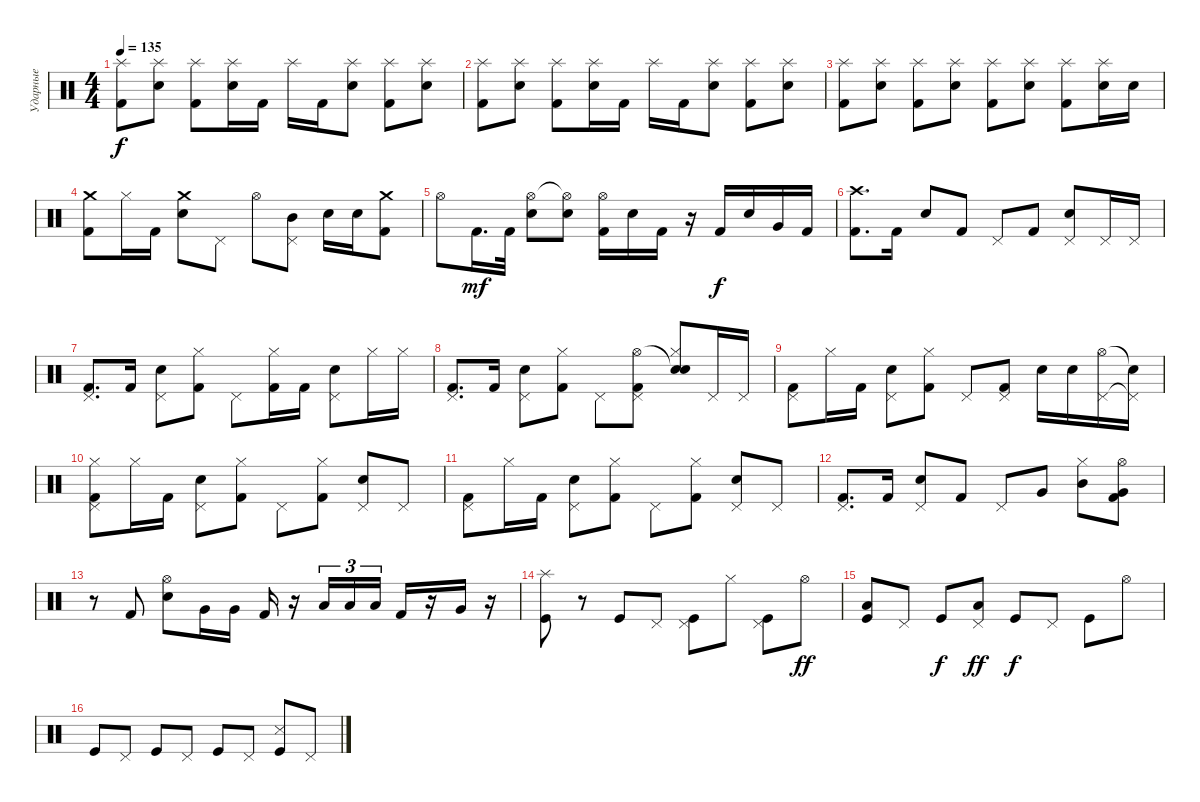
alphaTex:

\track ("Ударные" "Ударные") {instrument percussion}
\staff {score}
\articulation defaults
\ts (4 4)
\tempo 135
\clef neutral
\ks c
("Splash (hit)" "Kick (hit) 2").8{dy f} ("Splash (hit)" "Electric Snare (hit)").8 ("Splash (hit)" "Kick (hit) 2").8 ("Splash (hit)" "Electric Snare (hit)").16 "Kick (hit) 2".16 "Splash (hit)".16 "Kick (hit) 2".16 ("Splash (hit)" "Electric Snare (hit)").8 ("Splash (hit)" "Kick (hit) 2").8 ("Splash (hit)" "Electric Snare (hit)").8 |
("Splash (hit)" "Kick (hit) 2").8 ("Splash (hit)" "Electric Snare (hit)").8 ("Splash (hit)" "Kick (hit) 2").8 ("Splash (hit)" "Electric Snare (hit)").16 "Kick (hit) 2".16 "Splash (hit)".16 "Kick (hit) 2".16 ("Splash (hit)" "Electric Snare (hit)").8 ("Splash (hit)" "Kick (hit) 2").8 ("Splash (hit)" "Electric Snare (hit)").8 |
("Splash (hit)" "Kick (hit) 2").8 ("Splash (hit)" "Electric Snare (hit)").8 ("Splash (hit)" "Kick (hit) 2").8 ("Splash (hit)" "Electric Snare (hit)").8 ("Splash (hit)" "Kick (hit) 2").8 ("Splash (hit)" "Electric Snare (hit)").8 ("Splash (hit)" "Kick (hit) 2").8 ("Splash (hit)" "Electric Snare (hit)").16 "Electric Snare (hit)".16 |
("Crash medium (hit)" "Kick (hit) 2").8 "Hi-Hat (closed)".16 "Kick (hit) 2".16 ("Crash medium (hit)" "Electric Snare (hit)").8 "Pedal Hi-Hat (hit)".8 "Hi-Hat (open)".8 ("Pedal Hi-Hat (hit)" "Mid Tom (hit)").8 "Electric Snare (hit)".16 "Electric Snare (hit)".16 ("Crash medium (hit)" "Kick (hit) 2").8 |
"Hi-Hat (open)".8 "Kick (hit) 2".16{d dy mf} "Kick (hit) 2".32 ("Hi-Hat (open)" "Electric Snare (hit)").8 ("Hi-Hat (open)"{t} "Electric Snare (hit)").8 ("Hi-Hat (open)" "Kick (hit) 2").16 "Electric Snare (hit)".16 "Kick (hit) 2".16 r.16 "Kick (hit) 2".16{dy f} "Electric Snare (hit)".16 "Very Low Tom (hit)".16 "Kick (hit) 2".16 |
("Crash high (hit)" "Kick (hit) 2").8{d} "Kick (hit) 2".16 "Electric Snare (hit)".8 "Kick (hit) 2".8 "Pedal Hi-Hat (hit)".8 "Kick (hit) 2".8 ("Pedal Hi-Hat (hit)" "Electric Snare (hit)").8 "Pedal Hi-Hat (hit)".16 "Pedal Hi-Hat (hit)".16 |
("Pedal Hi-Hat (hit)" "Kick (hit) 2").8{d} "Kick (hit) 2".16 ("Pedal Hi-Hat (hit)" "Electric Snare (hit)").8 ("Hi-Hat (closed)" "Kick (hit) 2").8 "Pedal Hi-Hat (hit)".8 ("Hi-Hat (closed)" "Kick (hit) 2").16 "Kick (hit) 2".16 ("Pedal Hi-Hat (hit)" "Electric Snare (hit)").8 "Hi-Hat (closed)".16 "Hi-Hat (closed)".16 |
("Pedal Hi-Hat (hit)" "Kick (hit) 2").8{d} "Kick (hit) 2".16 ("Pedal Hi-Hat (hit)" "Electric Snare (hit)").8 ("Hi-Hat (closed)" "Kick (hit) 2").8 "Pedal Hi-Hat (hit)".8 ("Pedal Hi-Hat (hit)" "Hi-Hat (open)" "Kick (hit) 2").8 ("Hi-Hat (closed)" "Snare (hit)"{t} "Electric Snare (hit)").8 "Pedal Hi-Hat (hit)".16 "Pedal Hi-Hat (hit)".16 |
("Pedal Hi-Hat (hit)" "Kick (hit) 2").8 "Hi-Hat (closed)".16 "Kick (hit) 2".16 ("Pedal Hi-Hat (hit)" "Electric Snare (hit)").8 ("Hi-Hat (closed)" "Kick (hit) 2").8 "Pedal Hi-Hat (hit)".8 ("Pedal Hi-Hat (hit)" "Kick (hit) 2").8 "Electric Snare (hit)".16 "Electric Snare (hit)".16 ("Pedal Hi-Hat (hit)" "Hi-Hat (open)").16 ("Pedal Hi-Hat (hit)"{t} "Snare (hit)"{t}).16 |
("Pedal Hi-Hat (hit)" "Hi-Hat (closed)" "Kick (hit) 2").8 "Hi-Hat (closed)".16 "Kick (hit) 2".16 ("Pedal Hi-Hat (hit)" "Electric Snare (hit)").8 ("Hi-Hat (closed)" "Kick (hit) 2").8 "Pedal Hi-Hat (hit)".8 ("Hi-Hat (closed)" "Kick (hit) 2").8 ("Pedal Hi-Hat (hit)" "Electric Snare (hit)").8 "Pedal Hi-Hat (hit)".8 |
("Pedal Hi-Hat (hit)" "Kick (hit) 2").8 "Hi-Hat (closed)".16 "Kick (hit) 2".16 ("Pedal Hi-Hat (hit)" "Electric Snare (hit)").8 ("Hi-Hat (closed)" "Kick (hit) 2").8 "Pedal Hi-Hat (hit)".8 ("Hi-Hat (closed)" "Kick (hit) 2").8 ("Pedal Hi-Hat (hit)" "Electric Snare (hit)").8 "Pedal Hi-Hat (hit)".8 |
("Pedal Hi-Hat (hit)" "Kick (hit) 2").8{d} "Kick (hit) 2".16 ("Pedal Hi-Hat (hit)" "Electric Snare (hit)").8 "Kick (hit) 2".8 "Pedal Hi-Hat (hit)".8 "Very Low Tom (hit)".8 ("Hi-Hat (closed)" "Mid Tom (hit)").8 ("Hi-Hat (open)" "Very Low Tom (hit)" "Kick (hit) 2").8 |
r.8 "Kick (hit) 2".8 ("Hi-Hat (open)" "Electric Snare (hit)").8 "Very Low Tom (hit)".16 "Very Low Tom (hit)".16 "Kick (hit) 2".16 r.16 "Low Floor Tom (hit)".16{tu (3 2)} "Low Floor Tom (hit)".16{tu (3 2)} "Low Floor Tom (hit)".16{tu (3 2)} "Kick (hit) 2".16 r.16 "Very Low Tom (hit)".16 r.16 |
("Splash (hit)" "Kick (hit)").8 r.8 "Kick (hit)".8 "Pedal Hi-Hat (hit)".8 ("Pedal Hi-Hat (hit)" "Kick (hit)").8 "Hi-Hat (closed)".8 ("Pedal Hi-Hat (hit)" "Kick (hit)").8 "Hi-Hat (open)".8{dy ff} |
("Low Floor Tom (hit)" "Kick (hit)").8 "Pedal Hi-Hat (hit)".8 "Kick (hit)".8{dy f} ("Pedal Hi-Hat (hit)" "Low Tom (hit)").8{dy ff} "Kick (hit)".8{dy f} "Pedal Hi-Hat (hit)".8 "Kick (hit)".8 "Hi-Hat (open)".8 |
"Kick (hit)".8 "Pedal Hi-Hat (hit)".8 "Kick (hit)".8 "Pedal Hi-Hat (hit)".8 "Kick (hit)".8 "Pedal Hi-Hat (hit)".8 ("Metronome (hit)" "Kick (hit)").8 "Pedal Hi-Hat (hit)".8
